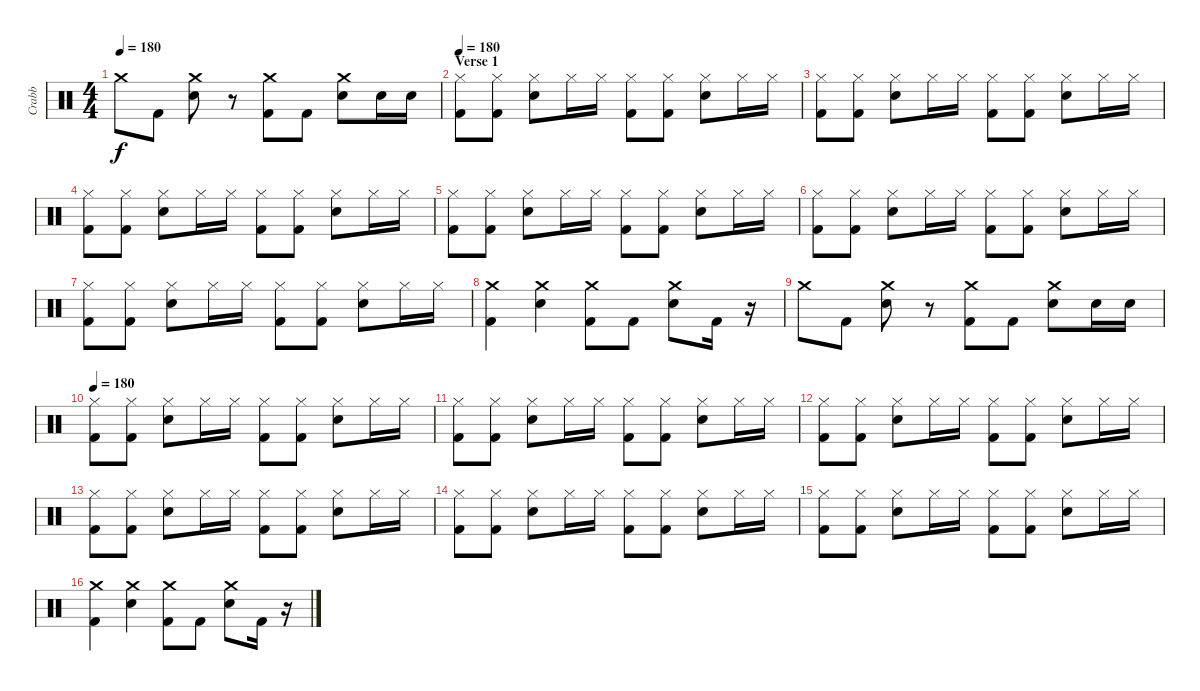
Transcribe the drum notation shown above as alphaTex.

\track ("Crabb" "Crabb") {instrument percussion}
\staff {score}
\articulation defaults
\ts (4 4)
\tempo 180
\clef neutral
\ks c "Crash medium (hit)".8{dy f} "Kick (hit) 2".8
("Crash medium (hit)" "Electric Snare (hit)").8 r.8 ("Crash medium (hit)" "Kick (hit) 2").8 "Kick (hit) 2".8 ("Crash medium (hit)" "Electric Snare (hit)").8 "Electric Snare (hit)".16 "Electric Snare (hit)".16 |
\section ("" "Verse 1")
\tempo 180
("Hi-Hat (closed)" "Kick (hit) 2").8 ("Hi-Hat (closed)" "Kick (hit) 2").8 ("Hi-Hat (closed)" "Electric Snare (hit)").8 "Hi-Hat (closed)".16 "Hi-Hat (closed)".16 ("Hi-Hat (closed)" "Kick (hit) 2").8 ("Hi-Hat (closed)" "Kick (hit) 2").8 ("Hi-Hat (closed)" "Electric Snare (hit)").8 "Hi-Hat (closed)".16 "Hi-Hat (closed)".16 |
("Hi-Hat (closed)" "Kick (hit) 2").8 ("Hi-Hat (closed)" "Kick (hit) 2").8 ("Hi-Hat (closed)" "Electric Snare (hit)").8 "Hi-Hat (closed)".16 "Hi-Hat (closed)".16 ("Hi-Hat (closed)" "Kick (hit) 2").8 ("Hi-Hat (closed)" "Kick (hit) 2").8 ("Hi-Hat (closed)" "Electric Snare (hit)").8 "Hi-Hat (closed)".16 "Hi-Hat (closed)".16 |
("Hi-Hat (closed)" "Kick (hit) 2").8 ("Hi-Hat (closed)" "Kick (hit) 2").8 ("Hi-Hat (closed)" "Electric Snare (hit)").8 "Hi-Hat (closed)".16 "Hi-Hat (closed)".16 ("Hi-Hat (closed)" "Kick (hit) 2").8 ("Hi-Hat (closed)" "Kick (hit) 2").8 ("Hi-Hat (closed)" "Electric Snare (hit)").8 "Hi-Hat (closed)".16 "Hi-Hat (closed)".16 |
("Hi-Hat (closed)" "Kick (hit) 2").8 ("Hi-Hat (closed)" "Kick (hit) 2").8 ("Hi-Hat (closed)" "Electric Snare (hit)").8 "Hi-Hat (closed)".16 "Hi-Hat (closed)".16 ("Hi-Hat (closed)" "Kick (hit) 2").8 ("Hi-Hat (closed)" "Kick (hit) 2").8 ("Hi-Hat (closed)" "Electric Snare (hit)").8 "Hi-Hat (closed)".16 "Hi-Hat (closed)".16 |
("Hi-Hat (closed)" "Kick (hit) 2").8 ("Hi-Hat (closed)" "Kick (hit) 2").8 ("Hi-Hat (closed)" "Electric Snare (hit)").8 "Hi-Hat (closed)".16 "Hi-Hat (closed)".16 ("Hi-Hat (closed)" "Kick (hit) 2").8 ("Hi-Hat (closed)" "Kick (hit) 2").8 ("Hi-Hat (closed)" "Electric Snare (hit)").8 "Hi-Hat (closed)".16 "Hi-Hat (closed)".16 |
("Hi-Hat (closed)" "Kick (hit) 2").8 ("Hi-Hat (closed)" "Kick (hit) 2").8 ("Hi-Hat (closed)" "Electric Snare (hit)").8 "Hi-Hat (closed)".16 "Hi-Hat (closed)".16 ("Hi-Hat (closed)" "Kick (hit) 2").8 ("Hi-Hat (closed)" "Kick (hit) 2").8 ("Hi-Hat (closed)" "Electric Snare (hit)").8 "Hi-Hat (closed)".16 "Hi-Hat (closed)".16 |
("Crash medium (hit)" "Kick (hit) 2").4 ("Crash medium (hit)" "Electric Snare (hit)").4 ("Crash medium (hit)" "Kick (hit) 2").8 "Kick (hit) 2".8 ("Crash medium (hit)" "Electric Snare (hit)").8 "Kick (hit) 2".16 r.16 |
"Crash medium (hit)".8 "Kick (hit) 2".8 ("Crash medium (hit)" "Electric Snare (hit)").8 r.8 ("Crash medium (hit)" "Kick (hit) 2").8 "Kick (hit) 2".8 ("Crash medium (hit)" "Electric Snare (hit)").8 "Electric Snare (hit)".16 "Electric Snare (hit)".16 |
\tempo 180
("Hi-Hat (closed)" "Kick (hit) 2").8 ("Hi-Hat (closed)" "Kick (hit) 2").8 ("Hi-Hat (closed)" "Electric Snare (hit)").8 "Hi-Hat (closed)".16 "Hi-Hat (closed)".16 ("Hi-Hat (closed)" "Kick (hit) 2").8 ("Hi-Hat (closed)" "Kick (hit) 2").8 ("Hi-Hat (closed)" "Electric Snare (hit)").8 "Hi-Hat (closed)".16 "Hi-Hat (closed)".16 |
("Hi-Hat (closed)" "Kick (hit) 2").8 ("Hi-Hat (closed)" "Kick (hit) 2").8 ("Hi-Hat (closed)" "Electric Snare (hit)").8 "Hi-Hat (closed)".16 "Hi-Hat (closed)".16 ("Hi-Hat (closed)" "Kick (hit) 2").8 ("Hi-Hat (closed)" "Kick (hit) 2").8 ("Hi-Hat (closed)" "Electric Snare (hit)").8 "Hi-Hat (closed)".16 "Hi-Hat (closed)".16 |
("Hi-Hat (closed)" "Kick (hit) 2").8 ("Hi-Hat (closed)" "Kick (hit) 2").8 ("Hi-Hat (closed)" "Electric Snare (hit)").8 "Hi-Hat (closed)".16 "Hi-Hat (closed)".16 ("Hi-Hat (closed)" "Kick (hit) 2").8 ("Hi-Hat (closed)" "Kick (hit) 2").8 ("Hi-Hat (closed)" "Electric Snare (hit)").8 "Hi-Hat (closed)".16 "Hi-Hat (closed)".16 |
("Hi-Hat (closed)" "Kick (hit) 2").8 ("Hi-Hat (closed)" "Kick (hit) 2").8 ("Hi-Hat (closed)" "Electric Snare (hit)").8 "Hi-Hat (closed)".16 "Hi-Hat (closed)".16 ("Hi-Hat (closed)" "Kick (hit) 2").8 ("Hi-Hat (closed)" "Kick (hit) 2").8 ("Hi-Hat (closed)" "Electric Snare (hit)").8 "Hi-Hat (closed)".16 "Hi-Hat (closed)".16 |
("Hi-Hat (closed)" "Kick (hit) 2").8 ("Hi-Hat (closed)" "Kick (hit) 2").8 ("Hi-Hat (closed)" "Electric Snare (hit)").8 "Hi-Hat (closed)".16 "Hi-Hat (closed)".16 ("Hi-Hat (closed)" "Kick (hit) 2").8 ("Hi-Hat (closed)" "Kick (hit) 2").8 ("Hi-Hat (closed)" "Electric Snare (hit)").8 "Hi-Hat (closed)".16 "Hi-Hat (closed)".16 |
("Hi-Hat (closed)" "Kick (hit) 2").8 ("Hi-Hat (closed)" "Kick (hit) 2").8 ("Hi-Hat (closed)" "Electric Snare (hit)").8 "Hi-Hat (closed)".16 "Hi-Hat (closed)".16 ("Hi-Hat (closed)" "Kick (hit) 2").8 ("Hi-Hat (closed)" "Kick (hit) 2").8 ("Hi-Hat (closed)" "Electric Snare (hit)").8 "Hi-Hat (closed)".16 "Hi-Hat (closed)".16 |
("Crash medium (hit)" "Kick (hit) 2").4 ("Crash medium (hit)" "Electric Snare (hit)").4 ("Crash medium (hit)" "Kick (hit) 2").8 "Kick (hit) 2".8 ("Crash medium (hit)" "Electric Snare (hit)").8 "Kick (hit) 2".16 r.16
